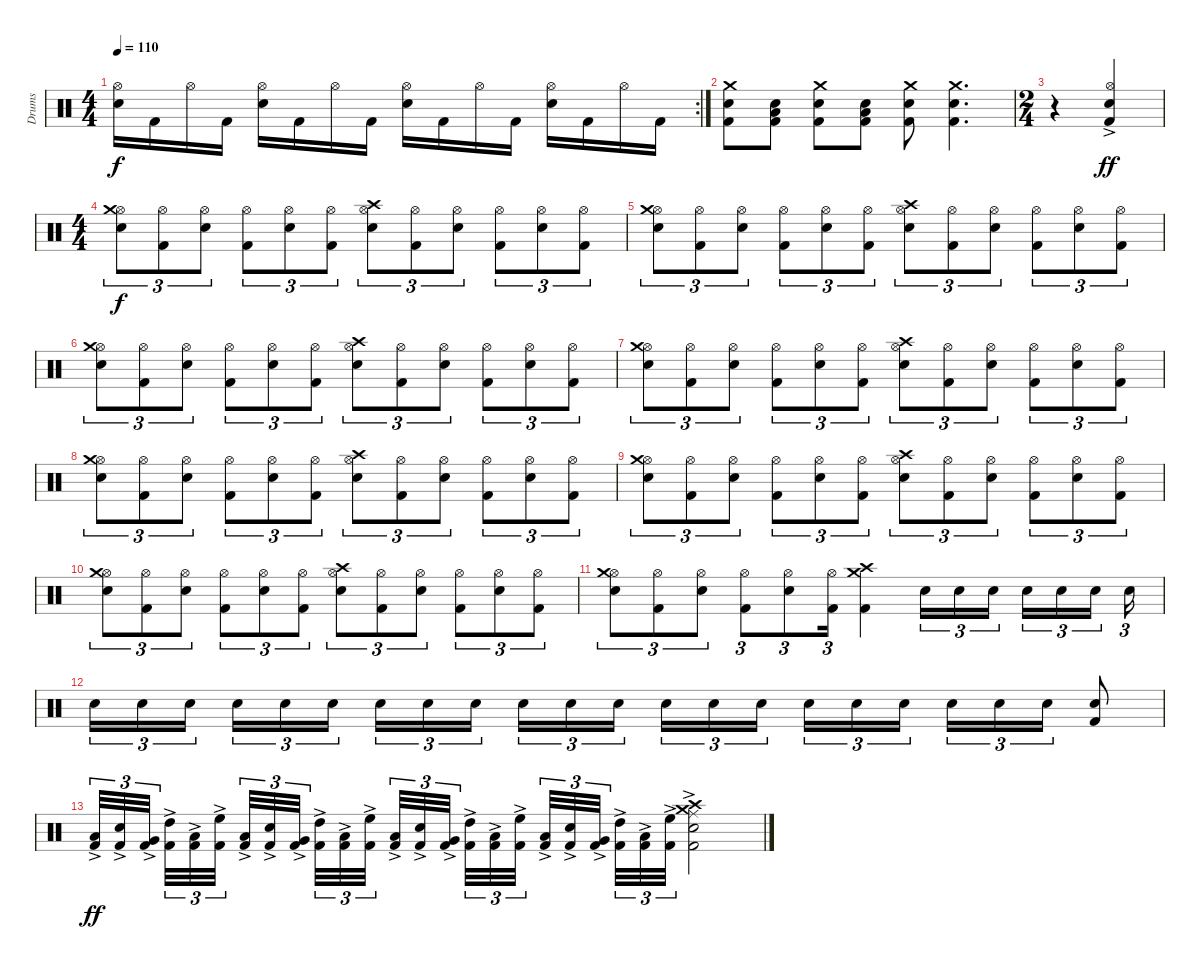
\track ("Drums" "Drums") {instrument percussion}
\staff {score}
\articulation defaults
\rc 2
\ts (4 4)
\tempo 110
\clef neutral
\ks c
("Snare (hit) 2" "Hi-Hat (open)").16{dy f} "Kick (hit) 2".16 "Hi-Hat (open)".16 "Kick (hit) 2".16 ("Snare (hit) 2" "Hi-Hat (open)").16 "Kick (hit) 2".16 "Hi-Hat (open)".16 "Kick (hit) 2".16 ("Snare (hit) 2" "Hi-Hat (open)").16 "Kick (hit) 2".16 "Hi-Hat (open)".16 "Kick (hit) 2".16 ("Snare (hit) 2" "Hi-Hat (open)").16 "Kick (hit) 2".16 "Hi-Hat (open)".16 "Kick (hit) 2".16 |
("Kick (hit) 2" "Crash medium (hit)" "Snare (hit) 2").8 ("Kick (hit) 2" "Low Floor Tom (hit)" "Snare (hit) 2").8 ("Kick (hit) 2" "Crash medium (hit)" "Snare (hit) 2").8 ("Kick (hit) 2" "Low Floor Tom (hit)" "Snare (hit) 2").8 ("Kick (hit) 2" "Crash medium (hit)" "Snare (hit) 2").8 ("Kick (hit) 2" "Crash medium (hit)" "Snare (hit) 2").4{d} |
\ts (2 4)
r.4 ("Hi-Hat (open)" "Snare (hit) 2"{ac} "Kick (hit) 2").4{dy ff} |
\ts (4 4)
("Snare (hit) 2" "Hi-Hat (open)" "Crash medium (hit)").8{tu (3 2) dy f} ("Kick (hit) 2" "Hi-Hat (open)").8{tu (3 2)} ("Snare (hit) 2" "Hi-Hat (open)").8{tu (3 2)} ("Kick (hit) 2" "Hi-Hat (open)").8{tu (3 2)} ("Snare (hit) 2" "Hi-Hat (open)").8{tu (3 2)} ("Kick (hit) 2" "Hi-Hat (open)").8{tu (3 2)} ("Snare (hit) 2" "Hi-Hat (open)" "Crash high (hit)").8{tu (3 2)} ("Kick (hit) 2" "Hi-Hat (open)").8{tu (3 2)} ("Snare (hit) 2" "Hi-Hat (open)").8{tu (3 2)} ("Kick (hit) 2" "Hi-Hat (open)").8{tu (3 2)} ("Snare (hit) 2" "Hi-Hat (open)").8{tu (3 2)} ("Kick (hit) 2" "Hi-Hat (open)").8{tu (3 2)} |
("Snare (hit) 2" "Hi-Hat (open)" "Crash medium (hit)").8{tu (3 2)} ("Kick (hit) 2" "Hi-Hat (open)").8{tu (3 2)} ("Snare (hit) 2" "Hi-Hat (open)").8{tu (3 2)} ("Kick (hit) 2" "Hi-Hat (open)").8{tu (3 2)} ("Snare (hit) 2" "Hi-Hat (open)").8{tu (3 2)} ("Kick (hit) 2" "Hi-Hat (open)").8{tu (3 2)} ("Snare (hit) 2" "Hi-Hat (open)" "Crash high (hit)").8{tu (3 2)} ("Kick (hit) 2" "Hi-Hat (open)").8{tu (3 2)} ("Snare (hit) 2" "Hi-Hat (open)").8{tu (3 2)} ("Kick (hit) 2" "Hi-Hat (open)").8{tu (3 2)} ("Snare (hit) 2" "Hi-Hat (open)").8{tu (3 2)} ("Kick (hit) 2" "Hi-Hat (open)").8{tu (3 2)} |
("Snare (hit) 2" "Hi-Hat (open)" "Crash medium (hit)").8{tu (3 2)} ("Kick (hit) 2" "Hi-Hat (open)").8{tu (3 2)} ("Snare (hit) 2" "Hi-Hat (open)").8{tu (3 2)} ("Kick (hit) 2" "Hi-Hat (open)").8{tu (3 2)} ("Snare (hit) 2" "Hi-Hat (open)").8{tu (3 2)} ("Kick (hit) 2" "Hi-Hat (open)").8{tu (3 2)} ("Snare (hit) 2" "Hi-Hat (open)" "Crash high (hit)").8{tu (3 2)} ("Kick (hit) 2" "Hi-Hat (open)").8{tu (3 2)} ("Snare (hit) 2" "Hi-Hat (open)").8{tu (3 2)} ("Kick (hit) 2" "Hi-Hat (open)").8{tu (3 2)} ("Snare (hit) 2" "Hi-Hat (open)").8{tu (3 2)} ("Kick (hit) 2" "Hi-Hat (open)").8{tu (3 2)} |
("Snare (hit) 2" "Hi-Hat (open)" "Crash medium (hit)").8{tu (3 2)} ("Kick (hit) 2" "Hi-Hat (open)").8{tu (3 2)} ("Snare (hit) 2" "Hi-Hat (open)").8{tu (3 2)} ("Kick (hit) 2" "Hi-Hat (open)").8{tu (3 2)} ("Snare (hit) 2" "Hi-Hat (open)").8{tu (3 2)} ("Kick (hit) 2" "Hi-Hat (open)").8{tu (3 2)} ("Snare (hit) 2" "Hi-Hat (open)" "Crash high (hit)").8{tu (3 2)} ("Kick (hit) 2" "Hi-Hat (open)").8{tu (3 2)} ("Snare (hit) 2" "Hi-Hat (open)").8{tu (3 2)} ("Kick (hit) 2" "Hi-Hat (open)").8{tu (3 2)} ("Snare (hit) 2" "Hi-Hat (open)").8{tu (3 2)} ("Kick (hit) 2" "Hi-Hat (open)").8{tu (3 2)} |
("Snare (hit) 2" "Hi-Hat (open)" "Crash medium (hit)").8{tu (3 2)} ("Kick (hit) 2" "Hi-Hat (open)").8{tu (3 2)} ("Snare (hit) 2" "Hi-Hat (open)").8{tu (3 2)} ("Kick (hit) 2" "Hi-Hat (open)").8{tu (3 2)} ("Snare (hit) 2" "Hi-Hat (open)").8{tu (3 2)} ("Kick (hit) 2" "Hi-Hat (open)").8{tu (3 2)} ("Snare (hit) 2" "Hi-Hat (open)" "Crash high (hit)").8{tu (3 2)} ("Kick (hit) 2" "Hi-Hat (open)").8{tu (3 2)} ("Snare (hit) 2" "Hi-Hat (open)").8{tu (3 2)} ("Kick (hit) 2" "Hi-Hat (open)").8{tu (3 2)} ("Snare (hit) 2" "Hi-Hat (open)").8{tu (3 2)} ("Kick (hit) 2" "Hi-Hat (open)").8{tu (3 2)} |
("Snare (hit) 2" "Hi-Hat (open)" "Crash medium (hit)").8{tu (3 2)} ("Kick (hit) 2" "Hi-Hat (open)").8{tu (3 2)} ("Snare (hit) 2" "Hi-Hat (open)").8{tu (3 2)} ("Kick (hit) 2" "Hi-Hat (open)").8{tu (3 2)} ("Snare (hit) 2" "Hi-Hat (open)").8{tu (3 2)} ("Kick (hit) 2" "Hi-Hat (open)").8{tu (3 2)} ("Snare (hit) 2" "Hi-Hat (open)" "Crash high (hit)").8{tu (3 2)} ("Kick (hit) 2" "Hi-Hat (open)").8{tu (3 2)} ("Snare (hit) 2" "Hi-Hat (open)").8{tu (3 2)} ("Kick (hit) 2" "Hi-Hat (open)").8{tu (3 2)} ("Snare (hit) 2" "Hi-Hat (open)").8{tu (3 2)} ("Kick (hit) 2" "Hi-Hat (open)").8{tu (3 2)} |
("Snare (hit) 2" "Hi-Hat (open)" "Crash medium (hit)").8{tu (3 2)} ("Kick (hit) 2" "Hi-Hat (open)").8{tu (3 2)} ("Snare (hit) 2" "Hi-Hat (open)").8{tu (3 2)} ("Kick (hit) 2" "Hi-Hat (open)").8{tu (3 2)} ("Snare (hit) 2" "Hi-Hat (open)").8{tu (3 2)} ("Kick (hit) 2" "Hi-Hat (open)").8{tu (3 2)} ("Snare (hit) 2" "Hi-Hat (open)" "Crash high (hit)").8{tu (3 2)} ("Kick (hit) 2" "Hi-Hat (open)").8{tu (3 2)} ("Snare (hit) 2" "Hi-Hat (open)").8{tu (3 2)} ("Kick (hit) 2" "Hi-Hat (open)").8{tu (3 2)} ("Snare (hit) 2" "Hi-Hat (open)").8{tu (3 2)} ("Kick (hit) 2" "Hi-Hat (open)").8{tu (3 2)} |
("Snare (hit) 2" "Hi-Hat (open)" "Crash medium (hit)").8{tu (3 2)} ("Kick (hit) 2" "Hi-Hat (open)").8{tu (3 2)} ("Snare (hit) 2" "Hi-Hat (open)").8{tu (3 2)} ("Kick (hit) 2" "Hi-Hat (open)").8{tu (3 2)} ("Snare (hit) 2" "Hi-Hat (open)").8{tu (3 2)} ("Kick (hit) 2" "Hi-Hat (open)").16{tu (3 2)} ("Crash high (hit)" "Crash medium (hit)" "Kick (hit) 2").4 "Snare (hit) 2".16{tu (3 2)} "Snare (hit) 2".16{tu (3 2)} "Snare (hit) 2".16{tu (3 2) beam splitsecondary} "Snare (hit) 2".16{tu (3 2)} "Snare (hit) 2".16{tu (3 2)} "Snare (hit) 2".16{tu (3 2) beam splitsecondary} "Snare (hit) 2".16{tu (3 2)} |
"Snare (hit) 2".16{tu (3 2)} "Snare (hit) 2".16{tu (3 2)} "Snare (hit) 2".16{tu (3 2) beam splitsecondary} "Snare (hit) 2".16{tu (3 2)} "Snare (hit) 2".16{tu (3 2)} "Snare (hit) 2".16{tu (3 2)} "Snare (hit) 2".16{tu (3 2)} "Snare (hit) 2".16{tu (3 2)} "Snare (hit) 2".16{tu (3 2) beam splitsecondary} "Snare (hit) 2".16{tu (3 2)} "Snare (hit) 2".16{tu (3 2)} "Snare (hit) 2".16{tu (3 2)} "Snare (hit) 2".16{tu (3 2)} "Snare (hit) 2".16{tu (3 2)} "Snare (hit) 2".16{tu (3 2) beam splitsecondary} "Snare (hit) 2".16{tu (3 2)} "Snare (hit) 2".16{tu (3 2)} "Snare (hit) 2".16{tu (3 2)} "Snare (hit) 2".16{tu (3 2)} "Snare (hit) 2".16{tu (3 2)} "Snare (hit) 2".16{tu (3 2)} ("Kick (hit) 2" "Snare (hit) 2").8 |
("Low Floor Tom (hit)" "Kick (hit) 2"{ac}).32{tu (3 2) dy ff} ("Snare (hit) 2" "Kick (hit) 2"{ac}).32{tu (3 2)} ("Very Low Tom (hit)" "Kick (hit) 2"{ac}).32{tu (3 2) beam splitsecondary} ("High Tom (hit)" "Kick (hit) 2"{ac}).32{tu (3 2)} ("Low Tom (hit)" "Kick (hit) 2"{ac}).32{tu (3 2)} ("High Floor Tom (hit)" "Kick (hit) 2"{ac}).32{tu (3 2) beam splitsecondary} ("Low Floor Tom (hit)" "Kick (hit) 2"{ac}).32{tu (3 2)} ("Snare (hit) 2" "Kick (hit) 2"{ac}).32{tu (3 2)} ("Very Low Tom (hit)" "Kick (hit) 2"{ac}).32{tu (3 2) beam splitsecondary} ("High Tom (hit)" "Kick (hit) 2"{ac}).32{tu (3 2)} ("Low Tom (hit)" "Kick (hit) 2"{ac}).32{tu (3 2)} ("High Floor Tom (hit)" "Kick (hit) 2"{ac}).32{tu (3 2)} ("Low Floor Tom (hit)" "Kick (hit) 2"{ac}).32{tu (3 2)} ("Snare (hit) 2" "Kick (hit) 2"{ac}).32{tu (3 2)} ("Very Low Tom (hit)" "Kick (hit) 2"{ac}).32{tu (3 2) beam splitsecondary} ("High Tom (hit)" "Kick (hit) 2"{ac}).32{tu (3 2)} ("Low Tom (hit)" "Kick (hit) 2"{ac}).32{tu (3 2)} ("High Floor Tom (hit)" "Kick (hit) 2"{ac}).32{tu (3 2) beam splitsecondary} ("Low Floor Tom (hit)" "Kick (hit) 2"{ac}).32{tu (3 2)} ("Snare (hit) 2" "Kick (hit) 2"{ac}).32{tu (3 2)} ("Very Low Tom (hit)" "Kick (hit) 2"{ac}).32{tu (3 2) beam splitsecondary} ("High Tom (hit)" "Kick (hit) 2"{ac}).32{tu (3 2)} ("Low Tom (hit)" "Kick (hit) 2"{ac}).32{tu (3 2)} ("High Floor Tom (hit)" "Kick (hit) 2"{ac}).32{tu (3 2)} ("Crash medium (hit)" "Crash high (hit)" "Ride (middle)" "Snare (hit) 2" "Kick (hit) 2"{ac}).2
